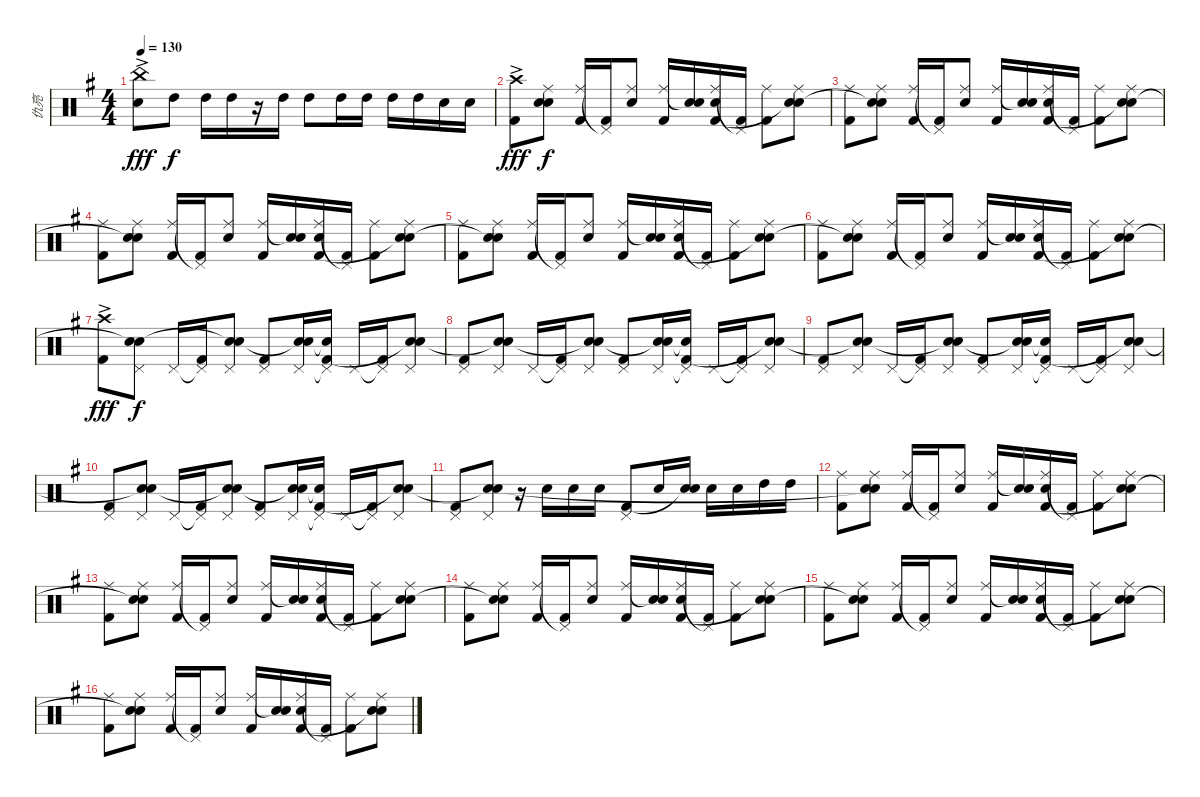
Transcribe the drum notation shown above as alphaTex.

\track ("仇亮" "仇亮") {instrument percussion}
\staff {score}
\articulation defaults
\ts (4 4)
\tempo 130
\clef neutral
\ks g
("China (hit)"{ac} "Snare (hit) 2"{ac}).8{dy fff} "High Tom (hit)".8{dy f} "High Tom (hit)".16 "High Tom (hit)".16 r.16 "High Tom (hit)".16 "High Tom (hit)".8 "High Tom (hit)".16 "High Tom (hit)".16 "High Tom (hit)".16 "High Tom (hit)".16 "Snare (hit) 2".16 "Snare (hit) 2".16 |
("Crash high (hit)"{ac} "Kick (hit) 2"{ac}).8{dy fff} ("Ride (middle)" "Snare (hit) 2" "Snare (hit)"{t}).8{dy f} ("Ride (middle)" "Kick (hit) 2").16 ("Pedal Hi-Hat (hit)"{t} "Kick (hit) 2").16 ("Ride (middle)" "Snare (hit) 2").8 ("Ride (middle)" "Kick (hit) 2").16 ("Snare (hit)"{t} "Snare (hit)").16 ("Ride (middle)" "Snare (hit) 2" "Kick (hit) 2").16 ("Pedal Hi-Hat (hit)"{t} "Kick (hit) 2").16 ("Ride (middle)" "Kick (hit) 2").8 ("Ride (middle)" "Snare (hit) 2" "Snare (hit)"{t}).8 |
("Ride (middle)" "Kick (hit) 2").8 ("Ride (middle)" "Snare (hit) 2" "Snare (hit)"{t}).8 ("Ride (middle)" "Kick (hit) 2").16 ("Pedal Hi-Hat (hit)"{t} "Kick (hit) 2").16 ("Ride (middle)" "Snare (hit) 2").8 ("Ride (middle)" "Kick (hit) 2").16 ("Snare (hit)"{t} "Snare (hit)").16 ("Ride (middle)" "Snare (hit) 2" "Kick (hit) 2").16 ("Pedal Hi-Hat (hit)"{t} "Kick (hit) 2").16 ("Ride (middle)" "Kick (hit) 2").8 ("Ride (middle)" "Snare (hit) 2" "Snare (hit)"{t}).8 |
("Ride (middle)" "Kick (hit) 2").8 ("Ride (middle)" "Snare (hit) 2" "Snare (hit)"{t}).8 ("Ride (middle)" "Kick (hit) 2").16 ("Pedal Hi-Hat (hit)"{t} "Kick (hit) 2").16 ("Ride (middle)" "Snare (hit) 2").8 ("Ride (middle)" "Kick (hit) 2").16 ("Snare (hit)"{t} "Snare (hit)").16 ("Ride (middle)" "Snare (hit) 2" "Kick (hit) 2").16 ("Pedal Hi-Hat (hit)"{t} "Kick (hit) 2").16 ("Ride (middle)" "Kick (hit) 2").8 ("Ride (middle)" "Snare (hit) 2" "Snare (hit)"{t}).8 |
("Ride (middle)" "Kick (hit) 2").8 ("Ride (middle)" "Snare (hit) 2" "Snare (hit)"{t}).8 ("Ride (middle)" "Kick (hit) 2").16 ("Pedal Hi-Hat (hit)"{t} "Kick (hit) 2").16 ("Ride (middle)" "Snare (hit) 2").8 ("Ride (middle)" "Kick (hit) 2").16 ("Snare (hit)"{t} "Snare (hit)").16 ("Ride (middle)" "Snare (hit) 2" "Kick (hit) 2").16 ("Pedal Hi-Hat (hit)"{t} "Kick (hit) 2").16 ("Ride (middle)" "Kick (hit) 2").8 ("Ride (middle)" "Snare (hit) 2" "Snare (hit)"{t}).8 |
("Ride (middle)" "Kick (hit) 2").8 ("Ride (middle)" "Snare (hit) 2" "Snare (hit)"{t}).8 ("Ride (middle)" "Kick (hit) 2").16 ("Pedal Hi-Hat (hit)"{t} "Kick (hit) 2").16 ("Ride (middle)" "Snare (hit) 2").8 ("Ride (middle)" "Kick (hit) 2").16 ("Snare (hit)"{t} "Snare (hit)").16 ("Ride (middle)" "Snare (hit) 2" "Kick (hit) 2").16 ("Pedal Hi-Hat (hit)"{t} "Kick (hit) 2").16 ("Ride (middle)" "Kick (hit) 2").8 ("Ride (middle)" "Snare (hit) 2" "Snare (hit)"{t}).8 |
("Crash high (hit)"{ac} "Kick (hit) 2"{ac}).8{dy fff} ("Pedal Hi-Hat (hit)" "Snare (hit) 2" "Snare (hit)"{t}).8{dy f} "Pedal Hi-Hat (hit)".16 ("Pedal Hi-Hat (hit)"{t} "Kick (hit) 2").16 ("Pedal Hi-Hat (hit)" "Snare (hit) 2" "Snare (hit)"{t}).8 ("Pedal Hi-Hat (hit)" "Kick (hit) 2").8 ("Pedal Hi-Hat (hit)" "Snare (hit) 2" "Snare (hit)"{t}).16 ("Pedal Hi-Hat (hit)"{t} "Snare (hit) 2"{t} "Kick (hit) 2").16 "Pedal Hi-Hat (hit)".16 ("Pedal Hi-Hat (hit)"{t} "Kick (hit) 2").16 ("Pedal Hi-Hat (hit)" "Snare (hit) 2" "Snare (hit)"{t}).8 |
("Pedal Hi-Hat (hit)" "Kick (hit) 2").8 ("Pedal Hi-Hat (hit)" "Snare (hit) 2" "Snare (hit)"{t}).8 "Pedal Hi-Hat (hit)".16 ("Pedal Hi-Hat (hit)"{t} "Kick (hit) 2").16 ("Pedal Hi-Hat (hit)" "Snare (hit) 2" "Snare (hit)"{t}).8 ("Pedal Hi-Hat (hit)" "Kick (hit) 2").8 ("Pedal Hi-Hat (hit)" "Snare (hit) 2" "Snare (hit)"{t}).16 ("Pedal Hi-Hat (hit)"{t} "Snare (hit)"{t} "Kick (hit) 2").16 "Pedal Hi-Hat (hit)".16 ("Pedal Hi-Hat (hit)"{t} "Kick (hit) 2").16 ("Pedal Hi-Hat (hit)" "Snare (hit) 2" "Snare (hit)"{t}).8 |
("Pedal Hi-Hat (hit)" "Kick (hit) 2").8 ("Pedal Hi-Hat (hit)" "Snare (hit) 2" "Snare (hit)"{t}).8 "Pedal Hi-Hat (hit)".16 ("Pedal Hi-Hat (hit)"{t} "Kick (hit) 2").16 ("Pedal Hi-Hat (hit)" "Snare (hit) 2" "Snare (hit)"{t}).8 ("Pedal Hi-Hat (hit)" "Kick (hit) 2").8 ("Pedal Hi-Hat (hit)" "Snare (hit) 2" "Snare (hit)"{t}).16 ("Pedal Hi-Hat (hit)"{t} "Snare (hit)"{t} "Kick (hit) 2").16 "Pedal Hi-Hat (hit)".16 ("Pedal Hi-Hat (hit)"{t} "Kick (hit) 2").16 ("Pedal Hi-Hat (hit)" "Snare (hit) 2" "Snare (hit)"{t}).8 |
("Pedal Hi-Hat (hit)" "Kick (hit) 2").8 ("Pedal Hi-Hat (hit)" "Snare (hit) 2" "Snare (hit)"{t}).8 "Pedal Hi-Hat (hit)".16 ("Pedal Hi-Hat (hit)"{t} "Kick (hit) 2").16 ("Pedal Hi-Hat (hit)" "Snare (hit) 2" "Snare (hit)"{t}).8 ("Pedal Hi-Hat (hit)" "Kick (hit) 2").8 ("Pedal Hi-Hat (hit)" "Snare (hit) 2" "Snare (hit)"{t}).16 ("Pedal Hi-Hat (hit)"{t} "Snare (hit)"{t} "Kick (hit) 2").16 "Pedal Hi-Hat (hit)".16 ("Pedal Hi-Hat (hit)"{t} "Kick (hit) 2").16 ("Pedal Hi-Hat (hit)" "Snare (hit) 2" "Snare (hit)"{t}).8 |
("Pedal Hi-Hat (hit)" "Kick (hit) 2").8 ("Pedal Hi-Hat (hit)" "Snare (hit) 2" "Snare (hit)"{t}).8 r.16 "Snare (hit) 2".16 "Snare (hit) 2".16 "Snare (hit) 2".16 ("Pedal Hi-Hat (hit)" "Kick (hit) 2").8 "Snare (hit) 2".16 ("Snare (hit) 2" "Snare (hit)"{t}).16 "Snare (hit) 2".16 "Snare (hit) 2".16 "High Tom (hit)".16 "High Tom (hit)".16 |
("Ride (middle)" "Kick (hit) 2").8 ("Ride (middle)" "Snare (hit) 2" "Snare (hit)"{t}).8 ("Ride (middle)" "Kick (hit) 2").16 ("Pedal Hi-Hat (hit)"{t} "Kick (hit) 2").16 ("Ride (middle)" "Snare (hit) 2").8 ("Ride (middle)" "Kick (hit) 2").16 ("Snare (hit)"{t} "Snare (hit)").16 ("Ride (middle)" "Snare (hit) 2" "Kick (hit) 2").16 ("Pedal Hi-Hat (hit)"{t} "Kick (hit) 2").16 ("Ride (middle)" "Kick (hit) 2").8 ("Ride (middle)" "Snare (hit) 2" "Snare (hit)"{t}).8 |
("Ride (middle)" "Kick (hit) 2").8 ("Ride (middle)" "Snare (hit) 2" "Snare (hit)"{t}).8 ("Ride (middle)" "Kick (hit) 2").16 ("Pedal Hi-Hat (hit)"{t} "Kick (hit) 2").16 ("Ride (middle)" "Snare (hit) 2").8 ("Ride (middle)" "Kick (hit) 2").16 ("Snare (hit)"{t} "Snare (hit)").16 ("Ride (middle)" "Snare (hit) 2" "Kick (hit) 2").16 ("Pedal Hi-Hat (hit)"{t} "Kick (hit) 2").16 ("Ride (middle)" "Kick (hit) 2").8 ("Ride (middle)" "Snare (hit) 2" "Snare (hit)"{t}).8 |
("Ride (middle)" "Kick (hit) 2").8 ("Ride (middle)" "Snare (hit) 2" "Snare (hit)"{t}).8 ("Ride (middle)" "Kick (hit) 2").16 ("Pedal Hi-Hat (hit)"{t} "Kick (hit) 2").16 ("Ride (middle)" "Snare (hit) 2").8 ("Ride (middle)" "Kick (hit) 2").16 ("Snare (hit)"{t} "Snare (hit)").16 ("Ride (middle)" "Snare (hit) 2" "Kick (hit) 2").16 ("Pedal Hi-Hat (hit)"{t} "Kick (hit) 2").16 ("Ride (middle)" "Kick (hit) 2").8 ("Ride (middle)" "Snare (hit) 2" "Snare (hit)"{t}).8 |
("Ride (middle)" "Kick (hit) 2").8 ("Ride (middle)" "Snare (hit) 2" "Snare (hit)"{t}).8 ("Ride (middle)" "Kick (hit) 2").16 ("Pedal Hi-Hat (hit)"{t} "Kick (hit) 2").16 ("Ride (middle)" "Snare (hit) 2").8 ("Ride (middle)" "Kick (hit) 2").16 ("Snare (hit)"{t} "Snare (hit)").16 ("Ride (middle)" "Snare (hit) 2" "Kick (hit) 2").16 ("Pedal Hi-Hat (hit)"{t} "Kick (hit) 2").16 ("Ride (middle)" "Kick (hit) 2").8 ("Ride (middle)" "Snare (hit) 2" "Snare (hit)"{t}).8 |
("Ride (middle)" "Kick (hit) 2").8 ("Ride (middle)" "Snare (hit) 2" "Snare (hit)"{t}).8 ("Ride (middle)" "Kick (hit) 2").16 ("Pedal Hi-Hat (hit)"{t} "Kick (hit) 2").16 ("Ride (middle)" "Snare (hit) 2").8 ("Ride (middle)" "Kick (hit) 2").16 ("Snare (hit)"{t} "Snare (hit)").16 ("Ride (middle)" "Snare (hit) 2" "Kick (hit) 2").16 ("Pedal Hi-Hat (hit)"{t} "Kick (hit) 2").16 ("Ride (middle)" "Kick (hit) 2").8 ("Ride (middle)" "Snare (hit) 2" "Snare (hit)"{t}).8
